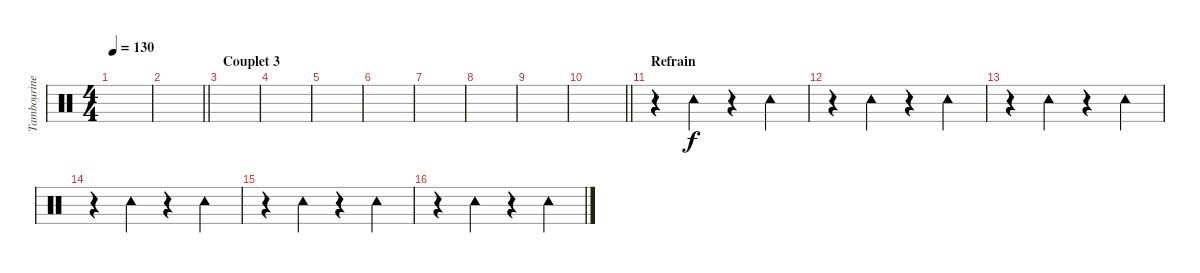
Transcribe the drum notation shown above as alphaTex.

\track ("Tambourine" "Tambourine") {instrument percussion}
\staff {score}
\articulation defaults
\ts (4 4)
\tempo 130
\clef neutral
\ks c
|
\barLineRight lightlight
|
\section ("" "Couplet 3")
|
|
|
|
|
|
|
\barLineRight lightlight
|
\section ("" "Refrain")
r.4 "Tambourine (hit)".4 r.4 "Tambourine (hit)".4 |
r.4 "Tambourine (hit)".4 r.4 "Tambourine (hit)".4 |
r.4 "Tambourine (hit)".4 r.4 "Tambourine (hit)".4 |
r.4 "Tambourine (hit)".4 r.4 "Tambourine (hit)".4 |
r.4 "Tambourine (hit)".4 r.4 "Tambourine (hit)".4 |
r.4 "Tambourine (hit)".4 r.4 "Tambourine (hit)".4
